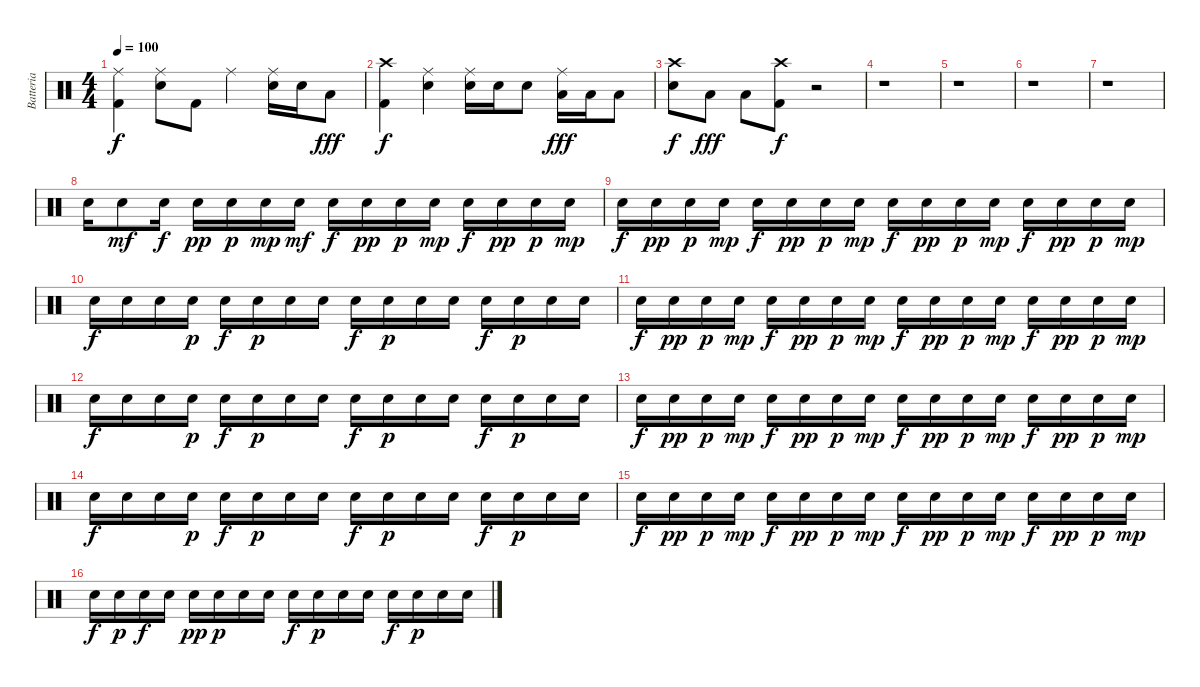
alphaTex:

\track ("Batteria" "Batteria") {instrument percussion}
\staff {score}
\articulation defaults
\ts (4 4)
\tempo 100
\clef neutral
\ks c
("Ride (middle)" "Kick (hit) 2").4{dy f} ("Ride (middle)" "Electric Snare (hit)").8 "Kick (hit) 2".8 "Ride (middle)".4 ("Ride (middle)" "Electric Snare (hit)").16 "Electric Snare (hit)".16 "Low Tom (hit)".8{dy fff} |
("Crash high (hit)" "Kick (hit) 2").4{dy f} ("Ride (middle)" "Electric Snare (hit)").4 ("Ride (middle)" "Electric Snare (hit)").16 "Electric Snare (hit)".16 "Electric Snare (hit)".8 ("Ride (middle)" "Low Tom (hit)").16{dy fff} "Low Tom (hit)".16 "Low Tom (hit)".8 |
("Crash high (hit)" "Electric Snare (hit)").8{dy f} "Low Tom (hit)".8{dy fff} "Low Tom (hit)".8 ("Crash high (hit)" "Kick (hit) 2").8{dy f} r.2 |
r.1 |
r.1 |
r.1 |
r.1 |
"Electric Snare (hit)".16 "Electric Snare (hit)".8{dy mf} "Electric Snare (hit)".16{dy f} "Snare (hit) 2".16{dy pp} "Snare (hit) 2".16{dy p} "Snare (hit) 2".16{dy mp} "Snare (hit) 2".16{dy mf} "Electric Snare (hit)".16{dy f} "Snare (hit) 2".16{dy pp} "Snare (hit) 2".16{dy p} "Snare (hit) 2".16{dy mp} "Electric Snare (hit)".16{dy f} "Snare (hit) 2".16{dy pp} "Snare (hit) 2".16{dy p} "Snare (hit) 2".16{dy mp} |
"Electric Snare (hit)".16{dy f} "Snare (hit) 2".16{dy pp} "Snare (hit) 2".16{dy p} "Snare (hit) 2".16{dy mp} "Electric Snare (hit)".16{dy f} "Snare (hit) 2".16{dy pp} "Snare (hit) 2".16{dy p} "Snare (hit) 2".16{dy mp} "Electric Snare (hit)".16{dy f} "Snare (hit) 2".16{dy pp} "Snare (hit) 2".16{dy p} "Snare (hit) 2".16{dy mp} "Electric Snare (hit)".16{dy f} "Snare (hit) 2".16{dy pp} "Snare (hit) 2".16{dy p} "Snare (hit) 2".16{dy mp} |
"Electric Snare (hit)".16{dy f} "Electric Snare (hit)".16 "Electric Snare (hit)".16 "Snare (hit) 2".16{dy p} "Electric Snare (hit)".16{dy f} "Snare (hit) 2".16{dy p} "Snare (hit) 2".16 "Snare (hit) 2".16 "Electric Snare (hit)".16{dy f} "Snare (hit) 2".16{dy p} "Snare (hit) 2".16 "Snare (hit) 2".16 "Electric Snare (hit)".16{dy f} "Snare (hit) 2".16{dy p} "Snare (hit) 2".16 "Snare (hit) 2".16 |
"Electric Snare (hit)".16{dy f} "Snare (hit) 2".16{dy pp} "Snare (hit) 2".16{dy p} "Snare (hit) 2".16{dy mp} "Electric Snare (hit)".16{dy f} "Snare (hit) 2".16{dy pp} "Snare (hit) 2".16{dy p} "Snare (hit) 2".16{dy mp} "Electric Snare (hit)".16{dy f} "Snare (hit) 2".16{dy pp} "Snare (hit) 2".16{dy p} "Snare (hit) 2".16{dy mp} "Electric Snare (hit)".16{dy f} "Snare (hit) 2".16{dy pp} "Snare (hit) 2".16{dy p} "Snare (hit) 2".16{dy mp} |
"Electric Snare (hit)".16{dy f} "Electric Snare (hit)".16 "Electric Snare (hit)".16 "Snare (hit) 2".16{dy p} "Electric Snare (hit)".16{dy f} "Snare (hit) 2".16{dy p} "Snare (hit) 2".16 "Snare (hit) 2".16 "Electric Snare (hit)".16{dy f} "Snare (hit) 2".16{dy p} "Snare (hit) 2".16 "Snare (hit) 2".16 "Electric Snare (hit)".16{dy f} "Snare (hit) 2".16{dy p} "Snare (hit) 2".16 "Snare (hit) 2".16 |
"Electric Snare (hit)".16{dy f} "Snare (hit) 2".16{dy pp} "Snare (hit) 2".16{dy p} "Snare (hit) 2".16{dy mp} "Electric Snare (hit)".16{dy f} "Snare (hit) 2".16{dy pp} "Snare (hit) 2".16{dy p} "Snare (hit) 2".16{dy mp} "Electric Snare (hit)".16{dy f} "Snare (hit) 2".16{dy pp} "Snare (hit) 2".16{dy p} "Snare (hit) 2".16{dy mp} "Electric Snare (hit)".16{dy f} "Snare (hit) 2".16{dy pp} "Snare (hit) 2".16{dy p} "Snare (hit) 2".16{dy mp} |
"Electric Snare (hit)".16{dy f} "Electric Snare (hit)".16 "Electric Snare (hit)".16 "Snare (hit) 2".16{dy p} "Electric Snare (hit)".16{dy f} "Snare (hit) 2".16{dy p} "Snare (hit) 2".16 "Snare (hit) 2".16 "Electric Snare (hit)".16{dy f} "Snare (hit) 2".16{dy p} "Snare (hit) 2".16 "Snare (hit) 2".16 "Electric Snare (hit)".16{dy f} "Snare (hit) 2".16{dy p} "Snare (hit) 2".16 "Snare (hit) 2".16 |
"Electric Snare (hit)".16{dy f} "Snare (hit) 2".16{dy pp} "Snare (hit) 2".16{dy p} "Snare (hit) 2".16{dy mp} "Electric Snare (hit)".16{dy f} "Snare (hit) 2".16{dy pp} "Snare (hit) 2".16{dy p} "Snare (hit) 2".16{dy mp} "Electric Snare (hit)".16{dy f} "Snare (hit) 2".16{dy pp} "Snare (hit) 2".16{dy p} "Snare (hit) 2".16{dy mp} "Electric Snare (hit)".16{dy f} "Snare (hit) 2".16{dy pp} "Snare (hit) 2".16{dy p} "Snare (hit) 2".16{dy mp} |
"Electric Snare (hit)".16{dy f} "Snare (hit) 2".16{dy p} "Electric Snare (hit)".16{dy f} "Electric Snare (hit)".16 "Snare (hit) 2".16{dy pp} "Snare (hit) 2".16{dy p} "Snare (hit) 2".16 "Snare (hit) 2".16 "Electric Snare (hit)".16{dy f} "Snare (hit) 2".16{dy p} "Snare (hit) 2".16 "Snare (hit) 2".16 "Electric Snare (hit)".16{dy f} "Snare (hit) 2".16{dy p} "Snare (hit) 2".16 "Snare (hit) 2".16
